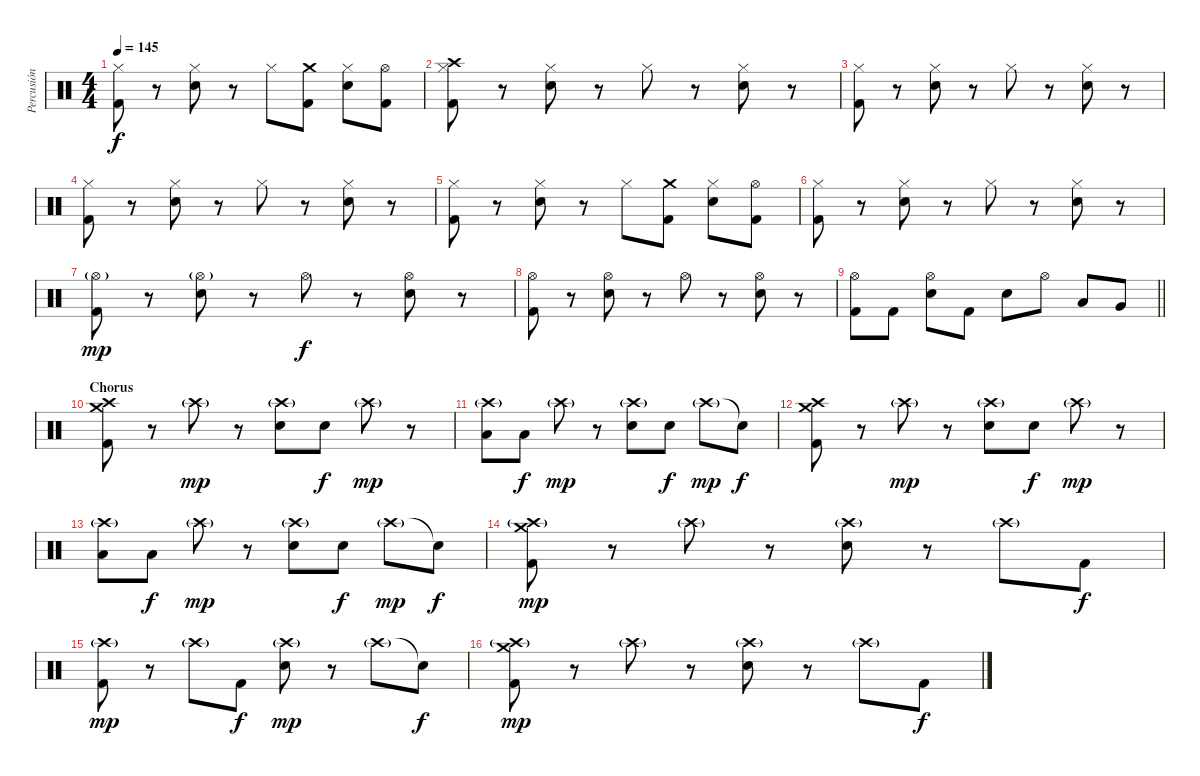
\track ("Percusión" "Percusión") {instrument percussion}
\staff {score}
\articulation defaults
\ts (4 4)
\tempo 145
\clef neutral
\ks c
("Hi-Hat (closed)" "Kick (hit) 2").8{dy f} r.8 ("Hi-Hat (closed)" "Electric Snare (hit)").8 r.8 "Hi-Hat (closed)".8 ("Kick (hit) 2" "Crash medium (hit)").8 ("Hi-Hat (closed)" "Electric Snare (hit)").8 ("Kick (hit) 2" "Hi-Hat (open)").8 |
("Hi-Hat (closed)" "Kick (hit) 2" "Crash high (hit)").8 r.8 ("Hi-Hat (closed)" "Electric Snare (hit)").8 r.8 "Hi-Hat (closed)".8 r.8 ("Hi-Hat (closed)" "Electric Snare (hit)").8 r.8 |
("Hi-Hat (closed)" "Kick (hit) 2").8 r.8 ("Hi-Hat (closed)" "Electric Snare (hit)").8 r.8 "Hi-Hat (closed)".8 r.8 ("Hi-Hat (closed)" "Electric Snare (hit)").8 r.8 |
("Hi-Hat (closed)" "Kick (hit) 2").8 r.8 ("Hi-Hat (closed)" "Electric Snare (hit)").8 r.8 "Hi-Hat (closed)".8 r.8 ("Hi-Hat (closed)" "Electric Snare (hit)").8 r.8 |
("Hi-Hat (closed)" "Kick (hit) 2").8 r.8 ("Hi-Hat (closed)" "Electric Snare (hit)").8 r.8 "Hi-Hat (closed)".8 ("Kick (hit) 2" "Crash medium (hit)").8 ("Hi-Hat (closed)" "Electric Snare (hit)").8 ("Kick (hit) 2" "Hi-Hat (open)").8 |
("Hi-Hat (closed)" "Kick (hit) 2").8 r.8 ("Hi-Hat (closed)" "Electric Snare (hit)").8 r.8 "Hi-Hat (closed)".8 r.8 ("Hi-Hat (closed)" "Electric Snare (hit)").8 r.8 |
("Hi-Hat (open)"{g} "Kick (hit) 2").8{dy mp} r.8 ("Hi-Hat (open)"{g} "Electric Snare (hit)").8 r.8 "Hi-Hat (open)".8{dy f} r.8 ("Hi-Hat (open)" "Electric Snare (hit)").8 r.8 |
("Hi-Hat (open)" "Kick (hit) 2").8 r.8 ("Hi-Hat (open)" "Electric Snare (hit)").8 r.8 "Hi-Hat (open)".8 r.8 ("Hi-Hat (open)" "Electric Snare (hit)").8 r.8 |
\barLineRight lightlight
("Hi-Hat (open)" "Kick (hit) 2").8 "Kick (hit) 2".8 ("Hi-Hat (open)" "Electric Snare (hit)").8 "Kick (hit) 2".8 "Electric Snare (hit)".8 "Hi-Hat (open)".8 "Low Tom (hit)".8 "Very Low Tom (hit)".8 |
\section ("" "Chorus")
("Kick (hit) 2" "Crash high (hit)" "Crash medium (hit)").8 r.8 "Crash high (hit)"{g}.8{dy mp} r.8 ("Electric Snare (hit)" "Crash high (hit)"{g}).8 "Electric Snare (hit)".8{dy f} "Crash high (hit)"{g}.8{dy mp} r.8 |
("Low Tom (hit)" "Crash high (hit)"{g}).8 "Low Tom (hit)".8{dy f} "Crash high (hit)"{g}.8{dy mp} r.8 ("Electric Snare (hit)" "Crash high (hit)"{g}).8 "Electric Snare (hit)".8{dy f} "Crash high (hit)"{g}.8{dy mp} "Snare (hit)"{t}.8{dy f} |
("Kick (hit) 2" "Crash high (hit)" "Crash medium (hit)").8 r.8 "Crash high (hit)"{g}.8{dy mp} r.8 ("Electric Snare (hit)" "Crash high (hit)"{g}).8 "Electric Snare (hit)".8{dy f} "Crash high (hit)"{g}.8{dy mp} r.8 |
("Low Tom (hit)" "Crash high (hit)"{g}).8 "Low Tom (hit)".8{dy f} "Crash high (hit)"{g}.8{dy mp} r.8 ("Electric Snare (hit)" "Crash high (hit)"{g}).8 "Electric Snare (hit)".8{dy f} "Crash high (hit)"{g}.8{dy mp} "Snare (hit)"{t}.8{dy f} |
("Kick (hit) 2" "Crash high (hit)"{g} "Crash medium (hit)").8{dy mp} r.8 "Crash high (hit)"{g}.8 r.8 ("Electric Snare (hit)" "Crash high (hit)"{g}).8 r.8 "Crash high (hit)"{g}.8 "Kick (hit) 2".8{dy f} |
("Kick (hit) 2" "Crash high (hit)"{g}).8{dy mp} r.8 "Crash high (hit)"{g}.8 "Kick (hit) 2".8{dy f} ("Electric Snare (hit)" "Crash high (hit)"{g}).8{dy mp} r.8 "Crash high (hit)"{g}.8 "Snare (hit)"{t}.8{dy f} |
("Kick (hit) 2" "Crash high (hit)"{g} "Crash medium (hit)").8{dy mp} r.8 "Crash high (hit)"{g}.8 r.8 ("Electric Snare (hit)" "Crash high (hit)"{g}).8 r.8 "Crash high (hit)"{g}.8 "Kick (hit) 2".8{dy f}
